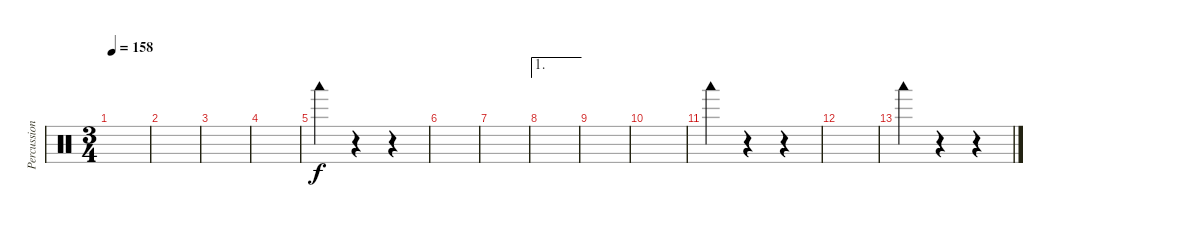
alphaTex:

\track ("Percussion" "Percussion") {instrument percussion}
\staff {score}
\articulation defaults
\ts (3 4)
\tempo 158
\clef neutral
\ks c
|
|
|
|
"Woodblock low (hit)".4 r.4 r.4 |
|
|
\ae 1
|
|
|
"Woodblock low (hit)".4 r.4 r.4 |
|
"Woodblock low (hit)".4 r.4 r.4
